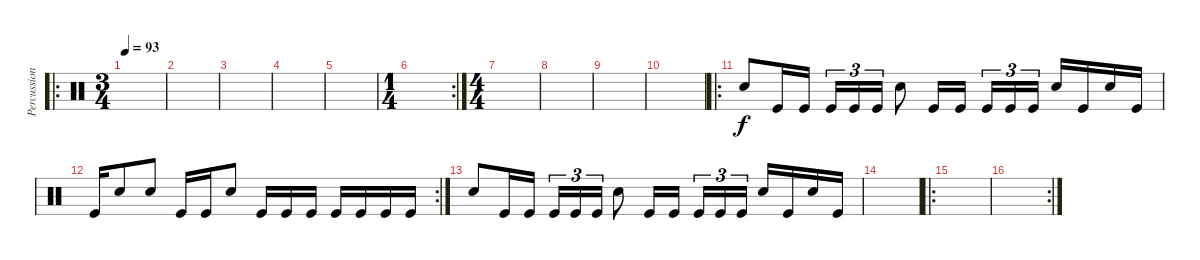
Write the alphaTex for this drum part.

\track ("Percussion" "Percussion") {instrument percussion}
\staff {score}
\articulation defaults
\ro
\ts (3 4)
\tempo 93
\clef neutral
\ks c
|
|
|
|
|
\rc 2
\ts (1 4)
|
\ts (4 4)
|
|
|
|
\ro "Snare (hit) 2".8 "Kick (hit)".16 "Kick (hit)".16 "Kick (hit)".16{tu (3 2)} "Kick (hit)".16{tu (3 2)} "Kick (hit)".16{tu (3 2)} "Snare (hit) 2".8 "Kick (hit)".16 "Kick (hit)".16{beam splitsecondary} "Kick (hit)".16{tu (3 2)} "Kick (hit)".16{tu (3 2)} "Kick (hit)".16{tu (3 2)} "Snare (hit) 2".16 "Kick (hit)".16 "Snare (hit) 2".16 "Kick (hit)".16
|
\rc 2 "Kick (hit)".16 "Snare (hit) 2".8 "Snare (hit) 2".8 "Kick (hit)".16 "Kick (hit)".16 "Snare (hit) 2".8 "Kick (hit)".16 "Kick (hit)".16 "Kick (hit)".16 "Kick (hit)".16 "Kick (hit)".16 "Kick (hit)".16 "Kick (hit)".16
|
"Snare (hit) 2".8 "Kick (hit)".16 "Kick (hit)".16 "Kick (hit)".16{tu (3 2)} "Kick (hit)".16{tu (3 2)} "Kick (hit)".16{tu (3 2)} "Snare (hit) 2".8 "Kick (hit)".16 "Kick (hit)".16{beam splitsecondary} "Kick (hit)".16{tu (3 2)} "Kick (hit)".16{tu (3 2)} "Kick (hit)".16{tu (3 2)} "Snare (hit) 2".16 "Kick (hit)".16 "Snare (hit) 2".16 "Kick (hit)".16 |
|
\ro
|
\rc 2
